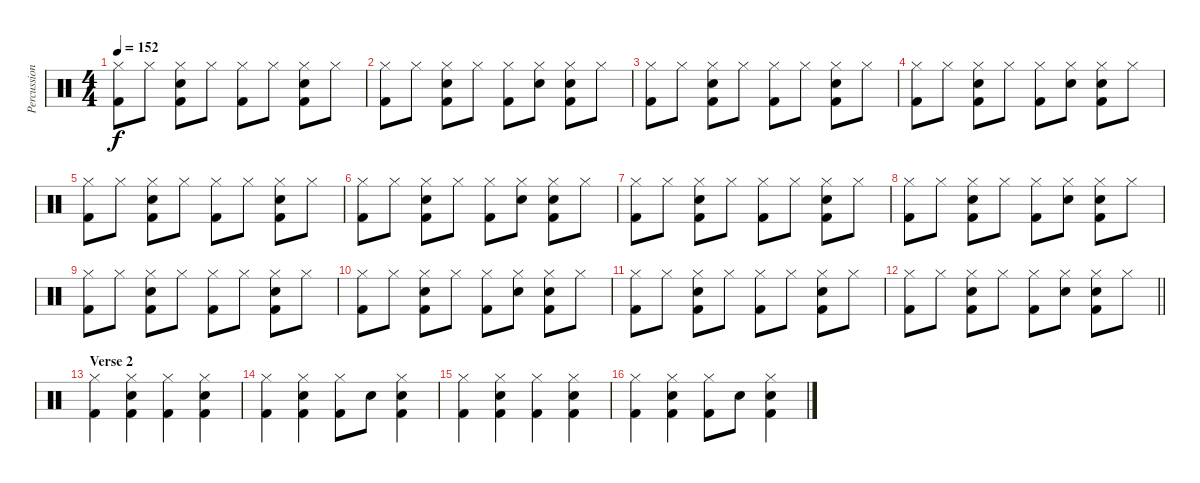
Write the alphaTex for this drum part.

\track ("Percussion" "Percussion") {instrument percussion}
\staff {score}
\articulation defaults
\ts (4 4)
\tempo 152
\clef neutral
\ks c
("Hi-Hat (closed)" "Kick (hit) 2").8{dy f} "Hi-Hat (closed)".8 ("Hi-Hat (closed)" "Electric Snare (hit)" "Kick (hit) 2").8 "Hi-Hat (closed)".8 ("Hi-Hat (closed)" "Kick (hit) 2").8 "Hi-Hat (closed)".8 ("Hi-Hat (closed)" "Electric Snare (hit)" "Kick (hit) 2").8 "Hi-Hat (closed)".8 |
("Hi-Hat (closed)" "Kick (hit) 2").8 "Hi-Hat (closed)".8 ("Hi-Hat (closed)" "Electric Snare (hit)" "Kick (hit) 2").8 "Hi-Hat (closed)".8 ("Hi-Hat (closed)" "Kick (hit) 2").8 ("Hi-Hat (closed)" "Electric Snare (hit)").8 ("Hi-Hat (closed)" "Electric Snare (hit)" "Kick (hit) 2").8 "Hi-Hat (closed)".8 |
("Hi-Hat (closed)" "Kick (hit) 2").8 "Hi-Hat (closed)".8 ("Hi-Hat (closed)" "Electric Snare (hit)" "Kick (hit) 2").8 "Hi-Hat (closed)".8 ("Hi-Hat (closed)" "Kick (hit) 2").8 "Hi-Hat (closed)".8 ("Hi-Hat (closed)" "Electric Snare (hit)" "Kick (hit) 2").8 "Hi-Hat (closed)".8 |
("Hi-Hat (closed)" "Kick (hit) 2").8 "Hi-Hat (closed)".8 ("Hi-Hat (closed)" "Electric Snare (hit)" "Kick (hit) 2").8 "Hi-Hat (closed)".8 ("Hi-Hat (closed)" "Kick (hit) 2").8 ("Hi-Hat (closed)" "Electric Snare (hit)").8 ("Hi-Hat (closed)" "Electric Snare (hit)" "Kick (hit) 2").8 "Hi-Hat (closed)".8 |
("Hi-Hat (closed)" "Kick (hit) 2").8 "Hi-Hat (closed)".8 ("Hi-Hat (closed)" "Electric Snare (hit)" "Kick (hit) 2").8 "Hi-Hat (closed)".8 ("Hi-Hat (closed)" "Kick (hit) 2").8 "Hi-Hat (closed)".8 ("Hi-Hat (closed)" "Electric Snare (hit)" "Kick (hit) 2").8 "Hi-Hat (closed)".8 |
("Hi-Hat (closed)" "Kick (hit) 2").8 "Hi-Hat (closed)".8 ("Hi-Hat (closed)" "Electric Snare (hit)" "Kick (hit) 2").8 "Hi-Hat (closed)".8 ("Hi-Hat (closed)" "Kick (hit) 2").8 ("Hi-Hat (closed)" "Electric Snare (hit)").8 ("Hi-Hat (closed)" "Electric Snare (hit)" "Kick (hit) 2").8 "Hi-Hat (closed)".8 |
("Hi-Hat (closed)" "Kick (hit) 2").8 "Hi-Hat (closed)".8 ("Hi-Hat (closed)" "Electric Snare (hit)" "Kick (hit) 2").8 "Hi-Hat (closed)".8 ("Hi-Hat (closed)" "Kick (hit) 2").8 "Hi-Hat (closed)".8 ("Hi-Hat (closed)" "Electric Snare (hit)" "Kick (hit) 2").8 "Hi-Hat (closed)".8 |
("Hi-Hat (closed)" "Kick (hit) 2").8 "Hi-Hat (closed)".8 ("Hi-Hat (closed)" "Electric Snare (hit)" "Kick (hit) 2").8 "Hi-Hat (closed)".8 ("Hi-Hat (closed)" "Kick (hit) 2").8 ("Hi-Hat (closed)" "Electric Snare (hit)").8 ("Hi-Hat (closed)" "Electric Snare (hit)" "Kick (hit) 2").8 "Hi-Hat (closed)".8 |
("Hi-Hat (closed)" "Kick (hit) 2").8 "Hi-Hat (closed)".8 ("Hi-Hat (closed)" "Electric Snare (hit)" "Kick (hit) 2").8 "Hi-Hat (closed)".8 ("Hi-Hat (closed)" "Kick (hit) 2").8 "Hi-Hat (closed)".8 ("Hi-Hat (closed)" "Electric Snare (hit)" "Kick (hit) 2").8 "Hi-Hat (closed)".8 |
("Hi-Hat (closed)" "Kick (hit) 2").8 "Hi-Hat (closed)".8 ("Hi-Hat (closed)" "Electric Snare (hit)" "Kick (hit) 2").8 "Hi-Hat (closed)".8 ("Hi-Hat (closed)" "Kick (hit) 2").8 ("Hi-Hat (closed)" "Electric Snare (hit)").8 ("Hi-Hat (closed)" "Electric Snare (hit)" "Kick (hit) 2").8 "Hi-Hat (closed)".8 |
("Hi-Hat (closed)" "Kick (hit) 2").8 "Hi-Hat (closed)".8 ("Hi-Hat (closed)" "Electric Snare (hit)" "Kick (hit) 2").8 "Hi-Hat (closed)".8 ("Hi-Hat (closed)" "Kick (hit) 2").8 "Hi-Hat (closed)".8 ("Hi-Hat (closed)" "Electric Snare (hit)" "Kick (hit) 2").8 "Hi-Hat (closed)".8 |
\barLineRight lightlight
("Hi-Hat (closed)" "Kick (hit) 2").8 "Hi-Hat (closed)".8 ("Hi-Hat (closed)" "Electric Snare (hit)" "Kick (hit) 2").8 "Hi-Hat (closed)".8 ("Hi-Hat (closed)" "Kick (hit) 2").8 ("Hi-Hat (closed)" "Electric Snare (hit)").8 ("Hi-Hat (closed)" "Electric Snare (hit)" "Kick (hit) 2").8 "Hi-Hat (closed)".8 |
\section ("" "Verse 2")
("Hi-Hat (closed)" "Kick (hit) 2").4 ("Hi-Hat (closed)" "Electric Snare (hit)" "Kick (hit) 2").4 ("Hi-Hat (closed)" "Kick (hit) 2").4 ("Hi-Hat (closed)" "Electric Snare (hit)" "Kick (hit) 2").4 |
("Hi-Hat (closed)" "Kick (hit) 2").4 ("Hi-Hat (closed)" "Electric Snare (hit)" "Kick (hit) 2").4 ("Hi-Hat (closed)" "Kick (hit) 2").8 "Electric Snare (hit)".8 ("Hi-Hat (closed)" "Electric Snare (hit)" "Kick (hit) 2").4 |
("Hi-Hat (closed)" "Kick (hit) 2").4 ("Hi-Hat (closed)" "Electric Snare (hit)" "Kick (hit) 2").4 ("Hi-Hat (closed)" "Kick (hit) 2").4 ("Hi-Hat (closed)" "Electric Snare (hit)" "Kick (hit) 2").4 |
("Hi-Hat (closed)" "Kick (hit) 2").4 ("Hi-Hat (closed)" "Electric Snare (hit)" "Kick (hit) 2").4 ("Hi-Hat (closed)" "Kick (hit) 2").8 "Electric Snare (hit)".8 ("Hi-Hat (closed)" "Electric Snare (hit)" "Kick (hit) 2").4
